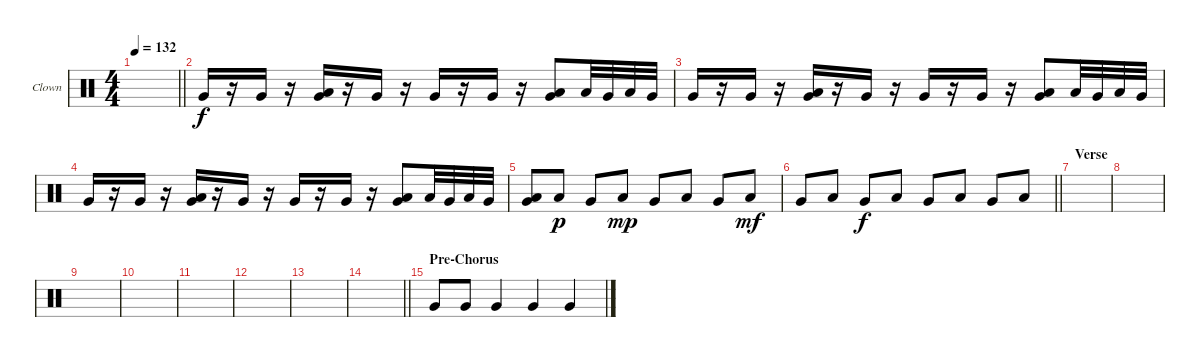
\bracketExtendMode groupsimilarinstruments
\firstSystemTrackNameOrientation horizontal
\otherSystemsTrackNameOrientation horizontal
\track ("Clown" "Clown") {instrument percussion}
\staff {score}
\articulation defaults
\ts (4 4)
\tempo 132
\clef neutral
\barLineRight lightlight
\ks c
|
"Very Low Tom (hit)".16 r.16 "Very Low Tom (hit)".16 r.16 ("Very Low Tom (hit)" "Low Tom (hit)").16 r.16 "Very Low Tom (hit)".16 r.16 "Very Low Tom (hit)".16 r.16 "Very Low Tom (hit)".16 r.16 ("Very Low Tom (hit)" "Low Tom (hit)").8 "Low Tom (hit)".32 "Very Low Tom (hit)".32 "Low Tom (hit)".32 "Very Low Tom (hit)".32 |
"Very Low Tom (hit)".16 r.16 "Very Low Tom (hit)".16 r.16 ("Very Low Tom (hit)" "Low Tom (hit)").16 r.16 "Very Low Tom (hit)".16 r.16 "Very Low Tom (hit)".16 r.16 "Very Low Tom (hit)".16 r.16 ("Very Low Tom (hit)" "Low Tom (hit)").8 "Low Tom (hit)".32 "Very Low Tom (hit)".32 "Low Tom (hit)".32 "Very Low Tom (hit)".32 |
"Very Low Tom (hit)".16 r.16 "Very Low Tom (hit)".16 r.16 ("Very Low Tom (hit)" "Low Tom (hit)").16 r.16 "Very Low Tom (hit)".16 r.16 "Very Low Tom (hit)".16 r.16 "Very Low Tom (hit)".16 r.16 ("Very Low Tom (hit)" "Low Tom (hit)").8 "Low Tom (hit)".32 "Very Low Tom (hit)".32 "Low Tom (hit)".32 "Very Low Tom (hit)".32 |
("Very Low Tom (hit)" "Low Tom (hit)").8 "Low Tom (hit)".8{dy p} "Very Low Tom (hit)".8 "Low Tom (hit)".8{dy mp} "Very Low Tom (hit)".8 "Low Tom (hit)".8 "Very Low Tom (hit)".8 "Low Tom (hit)".8{dy mf} |
\barLineRight lightlight "Very Low Tom (hit)".8 "Low Tom (hit)".8 "Very Low Tom (hit)".8{dy f} "Low Tom (hit)".8 "Very Low Tom (hit)".8 "Low Tom (hit)".8 "Very Low Tom (hit)".8 "Low Tom (hit)".8
|
\section ("" "Verse")
|
|
|
|
|
|
|
\barLineRight lightlight
|
\section ("" "Pre-Chorus")
"Very Low Tom (hit)".8 "Very Low Tom (hit)".8 "Very Low Tom (hit)".4 "Very Low Tom (hit)".4 "Very Low Tom (hit)".4
